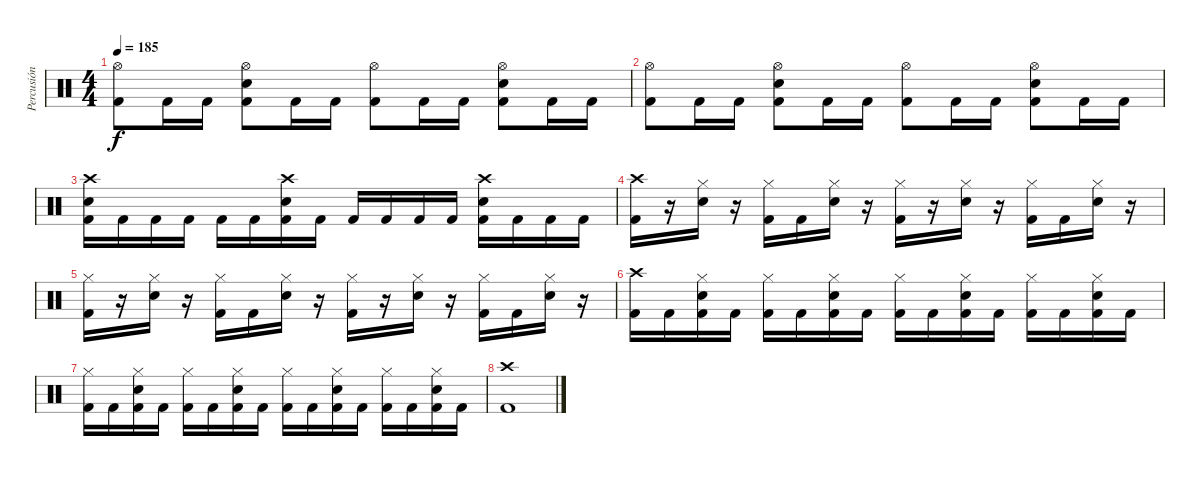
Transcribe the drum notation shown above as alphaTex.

\track ("Percusión" "Percusión") {instrument percussion}
\staff {score}
\articulation defaults
\ts (4 4)
\tempo 185
\clef neutral
\ks c
("Hi-Hat (open)" "Kick (hit) 2").8{dy f} "Kick (hit) 2".16 "Kick (hit) 2".16 ("Hi-Hat (open)" "Snare (hit) 2" "Kick (hit) 2").8 "Kick (hit) 2".16 "Kick (hit) 2".16 ("Hi-Hat (open)" "Kick (hit) 2").8 "Kick (hit) 2".16 "Kick (hit) 2".16 ("Hi-Hat (open)" "Snare (hit) 2" "Kick (hit) 2").8 "Kick (hit) 2".16 "Kick (hit) 2".16 |
("Hi-Hat (open)" "Kick (hit) 2").8 "Kick (hit) 2".16 "Kick (hit) 2".16 ("Hi-Hat (open)" "Snare (hit) 2" "Kick (hit) 2").8 "Kick (hit) 2".16 "Kick (hit) 2".16 ("Hi-Hat (open)" "Kick (hit) 2").8 "Kick (hit) 2".16 "Kick (hit) 2".16 ("Hi-Hat (open)" "Snare (hit) 2" "Kick (hit) 2").8 "Kick (hit) 2".16 "Kick (hit) 2".16 |
("Crash high (hit)" "Snare (hit) 2" "Kick (hit) 2").16 "Kick (hit) 2".16 "Kick (hit) 2".16 "Kick (hit) 2".16 "Kick (hit) 2".16 "Kick (hit) 2".16 ("Crash high (hit)" "Snare (hit) 2" "Kick (hit) 2").16 "Kick (hit) 2".16 "Kick (hit) 2".16 "Kick (hit) 2".16 "Kick (hit) 2".16 "Kick (hit) 2".16 ("Crash high (hit)" "Snare (hit) 2" "Kick (hit) 2").16 "Kick (hit) 2".16 "Kick (hit) 2".16 "Kick (hit) 2".16 |
("Crash high (hit)" "Kick (hit) 2").16 r.16 ("Hi-Hat (closed)" "Snare (hit) 2").16 r.16 ("Hi-Hat (closed)" "Kick (hit) 2").16 "Kick (hit) 2".16 ("Hi-Hat (closed)" "Snare (hit) 2").16 r.16 ("Hi-Hat (closed)" "Kick (hit) 2").16 r.16 ("Hi-Hat (closed)" "Snare (hit) 2").16 r.16 ("Hi-Hat (closed)" "Kick (hit) 2").16 "Kick (hit) 2".16 ("Hi-Hat (closed)" "Snare (hit) 2").16 r.16 |
("Hi-Hat (closed)" "Kick (hit) 2").16 r.16 ("Hi-Hat (closed)" "Snare (hit) 2").16 r.16 ("Hi-Hat (closed)" "Kick (hit) 2").16 "Kick (hit) 2".16 ("Hi-Hat (closed)" "Snare (hit) 2").16 r.16 ("Hi-Hat (closed)" "Kick (hit) 2").16 r.16 ("Hi-Hat (closed)" "Snare (hit) 2").16 r.16 ("Hi-Hat (closed)" "Kick (hit) 2").16 "Kick (hit) 2".16 ("Hi-Hat (closed)" "Snare (hit) 2").16 r.16 |
("Crash high (hit)" "Kick (hit) 2").16 "Kick (hit) 2".16 ("Hi-Hat (closed)" "Snare (hit) 2" "Kick (hit) 2").16 "Kick (hit) 2".16 ("Hi-Hat (closed)" "Kick (hit) 2").16 "Kick (hit) 2".16 ("Hi-Hat (closed)" "Snare (hit) 2" "Kick (hit) 2").16 "Kick (hit) 2".16 ("Hi-Hat (closed)" "Kick (hit) 2").16 "Kick (hit) 2".16 ("Hi-Hat (closed)" "Snare (hit) 2" "Kick (hit) 2").16 "Kick (hit) 2".16 ("Hi-Hat (closed)" "Kick (hit) 2").16 "Kick (hit) 2".16 ("Hi-Hat (closed)" "Snare (hit) 2" "Kick (hit) 2").16 "Kick (hit) 2".16 |
("Hi-Hat (closed)" "Kick (hit) 2").16 "Kick (hit) 2".16 ("Hi-Hat (closed)" "Snare (hit) 2" "Kick (hit) 2").16 "Kick (hit) 2".16 ("Hi-Hat (closed)" "Kick (hit) 2").16 "Kick (hit) 2".16 ("Hi-Hat (closed)" "Snare (hit) 2" "Kick (hit) 2").16 "Kick (hit) 2".16 ("Hi-Hat (closed)" "Kick (hit) 2").16 "Kick (hit) 2".16 ("Hi-Hat (closed)" "Snare (hit) 2" "Kick (hit) 2").16 "Kick (hit) 2".16 ("Hi-Hat (closed)" "Kick (hit) 2").16 "Kick (hit) 2".16 ("Hi-Hat (closed)" "Snare (hit) 2" "Kick (hit) 2").16 "Kick (hit) 2".16 |
("Crash high (hit)" "Kick (hit) 2").1
